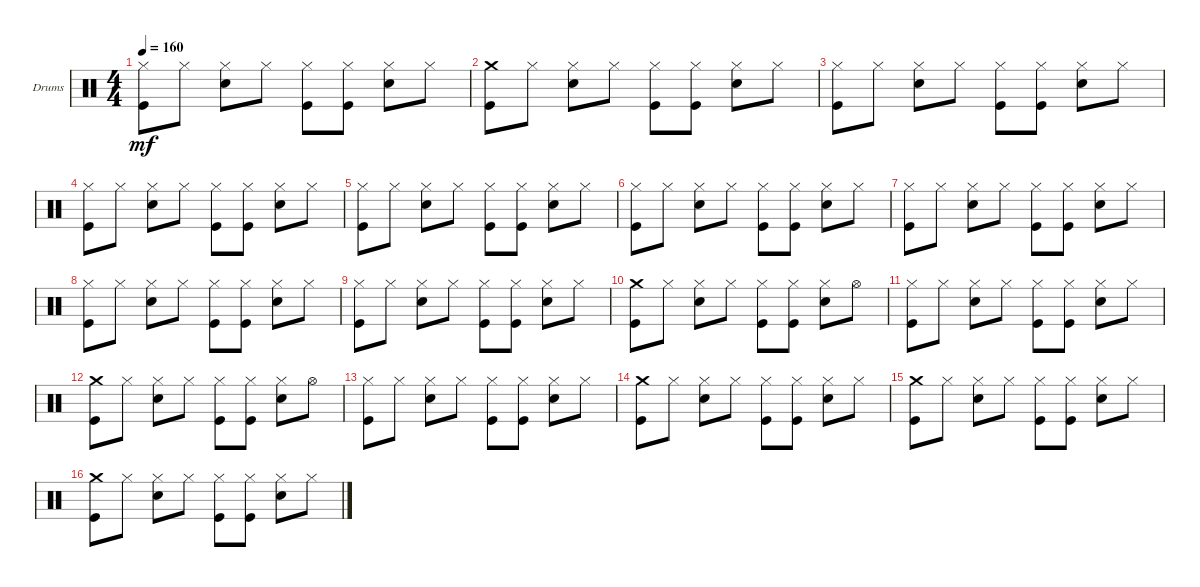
\defaultSystemsLayout 4
\bracketExtendMode groupsimilarinstruments
\firstSystemTrackNameOrientation horizontal
\otherSystemsTrackNameOrientation horizontal
\track ("Drumkit" "Drums") {instrument percussion}
\staff {score}
\articulation defaults
\ts (4 4)
\tempo 160
\clef neutral
\ks c
("Kick (hit)" "Hi-Hat (closed)").8{dy mf} "Hi-Hat (closed)".8 ("Snare (hit) 2" "Hi-Hat (closed)").8 "Hi-Hat (closed)".8 ("Hi-Hat (closed)" "Kick (hit)").8 ("Kick (hit)" "Hi-Hat (closed)").8 ("Snare (hit) 2" "Hi-Hat (closed)").8 "Hi-Hat (closed)".8 |
("Kick (hit)" "Crash medium (hit)").8 "Hi-Hat (closed)".8 ("Snare (hit) 2" "Hi-Hat (closed)").8 "Hi-Hat (closed)".8 ("Hi-Hat (closed)" "Kick (hit)").8 ("Kick (hit)" "Hi-Hat (closed)").8 ("Snare (hit) 2" "Hi-Hat (closed)").8 "Hi-Hat (closed)".8 |
("Kick (hit)" "Hi-Hat (closed)").8 "Hi-Hat (closed)".8 ("Snare (hit) 2" "Hi-Hat (closed)").8 "Hi-Hat (closed)".8 ("Hi-Hat (closed)" "Kick (hit)").8 ("Kick (hit)" "Hi-Hat (closed)").8 ("Snare (hit) 2" "Hi-Hat (closed)").8 "Hi-Hat (closed)".8 |
("Kick (hit)" "Hi-Hat (closed)").8 "Hi-Hat (closed)".8 ("Snare (hit) 2" "Hi-Hat (closed)").8 "Hi-Hat (closed)".8 ("Hi-Hat (closed)" "Kick (hit)").8 ("Kick (hit)" "Hi-Hat (closed)").8 ("Snare (hit) 2" "Hi-Hat (closed)").8 "Hi-Hat (closed)".8 |
("Kick (hit)" "Hi-Hat (closed)").8 "Hi-Hat (closed)".8 ("Snare (hit) 2" "Hi-Hat (closed)").8 "Hi-Hat (closed)".8 ("Hi-Hat (closed)" "Kick (hit)").8 ("Kick (hit)" "Hi-Hat (closed)").8 ("Snare (hit) 2" "Hi-Hat (closed)").8 "Hi-Hat (closed)".8 |
("Kick (hit)" "Hi-Hat (closed)").8 "Hi-Hat (closed)".8 ("Snare (hit) 2" "Hi-Hat (closed)").8 "Hi-Hat (closed)".8 ("Hi-Hat (closed)" "Kick (hit)").8 ("Kick (hit)" "Hi-Hat (closed)").8 ("Snare (hit) 2" "Hi-Hat (closed)").8 "Hi-Hat (closed)".8 |
("Kick (hit)" "Hi-Hat (closed)").8 "Hi-Hat (closed)".8 ("Snare (hit) 2" "Hi-Hat (closed)").8 "Hi-Hat (closed)".8 ("Hi-Hat (closed)" "Kick (hit)").8 ("Kick (hit)" "Hi-Hat (closed)").8 ("Snare (hit) 2" "Hi-Hat (closed)").8 "Hi-Hat (closed)".8 |
("Kick (hit)" "Hi-Hat (closed)").8 "Hi-Hat (closed)".8 ("Snare (hit) 2" "Hi-Hat (closed)").8 "Hi-Hat (closed)".8 ("Hi-Hat (closed)" "Kick (hit)").8 ("Kick (hit)" "Hi-Hat (closed)").8 ("Snare (hit) 2" "Hi-Hat (closed)").8 "Hi-Hat (closed)".8 |
("Kick (hit)" "Hi-Hat (closed)").8 "Hi-Hat (closed)".8 ("Snare (hit) 2" "Hi-Hat (closed)").8 "Hi-Hat (closed)".8 ("Hi-Hat (closed)" "Kick (hit)").8 ("Kick (hit)" "Hi-Hat (closed)").8 ("Snare (hit) 2" "Hi-Hat (closed)").8 "Hi-Hat (closed)".8 |
("Kick (hit)" "Crash medium (hit)").8 "Hi-Hat (closed)".8 ("Snare (hit) 2" "Hi-Hat (closed)").8 "Hi-Hat (closed)".8 ("Hi-Hat (closed)" "Kick (hit)").8 ("Kick (hit)" "Hi-Hat (closed)").8 ("Snare (hit) 2" "Hi-Hat (closed)").8 "Hi-Hat (open)".8 |
("Kick (hit)" "Hi-Hat (closed)").8 "Hi-Hat (closed)".8 ("Snare (hit) 2" "Hi-Hat (closed)").8 "Hi-Hat (closed)".8 ("Hi-Hat (closed)" "Kick (hit)").8 ("Kick (hit)" "Hi-Hat (closed)").8 ("Snare (hit) 2" "Hi-Hat (closed)").8 "Hi-Hat (closed)".8 |
("Kick (hit)" "Crash medium (hit)").8 "Hi-Hat (closed)".8 ("Snare (hit) 2" "Hi-Hat (closed)").8 "Hi-Hat (closed)".8 ("Hi-Hat (closed)" "Kick (hit)").8 ("Kick (hit)" "Hi-Hat (closed)").8 ("Snare (hit) 2" "Hi-Hat (closed)").8 "Hi-Hat (open)".8 |
("Kick (hit)" "Hi-Hat (closed)").8 "Hi-Hat (closed)".8 ("Snare (hit) 2" "Hi-Hat (closed)").8 "Hi-Hat (closed)".8 ("Hi-Hat (closed)" "Kick (hit)").8 ("Kick (hit)" "Hi-Hat (closed)").8 ("Snare (hit) 2" "Hi-Hat (closed)").8 "Hi-Hat (closed)".8 |
("Kick (hit)" "Crash medium (hit)").8 "Hi-Hat (closed)".8 ("Snare (hit) 2" "Hi-Hat (closed)").8 "Hi-Hat (closed)".8 ("Hi-Hat (closed)" "Kick (hit)").8 ("Kick (hit)" "Hi-Hat (closed)").8 ("Snare (hit) 2" "Hi-Hat (closed)").8 "Hi-Hat (closed)".8 |
("Kick (hit)" "Crash medium (hit)").8 "Hi-Hat (closed)".8 ("Snare (hit) 2" "Hi-Hat (closed)").8 "Hi-Hat (closed)".8 ("Hi-Hat (closed)" "Kick (hit)").8 ("Kick (hit)" "Hi-Hat (closed)").8 ("Snare (hit) 2" "Hi-Hat (closed)").8 "Hi-Hat (closed)".8 |
("Kick (hit)" "Crash medium (hit)").8 "Hi-Hat (closed)".8 ("Snare (hit) 2" "Hi-Hat (closed)").8 "Hi-Hat (closed)".8 ("Hi-Hat (closed)" "Kick (hit)").8 ("Kick (hit)" "Hi-Hat (closed)").8 ("Snare (hit) 2" "Hi-Hat (closed)").8 "Hi-Hat (closed)".8
